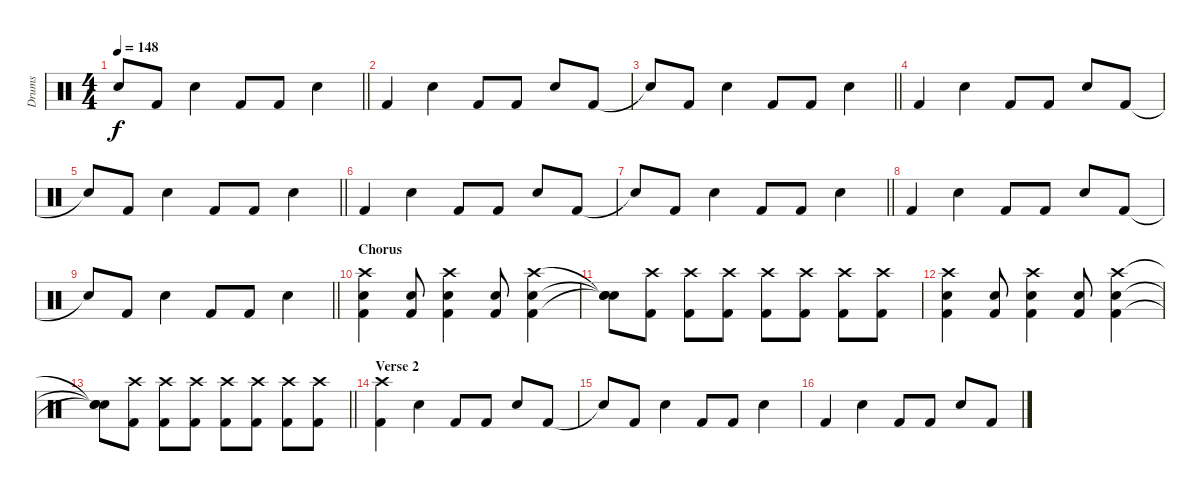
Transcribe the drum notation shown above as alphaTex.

\track ("Drums" "Drums") {instrument percussion}
\staff {score}
\articulation defaults
\ts (4 4)
\tempo 148
\clef neutral
\barLineRight lightlight
\ks c "Snare (hit)"{t}.8{dy f} "Kick (hit) 2".8 "Electric Snare (hit)".4 "Kick (hit) 2".8 "Kick (hit) 2".8 "Electric Snare (hit)".4
|
"Kick (hit) 2".4 "Electric Snare (hit)".4 "Kick (hit) 2".8 "Kick (hit) 2".8 "Electric Snare (hit)".8 "Kick (hit) 2".8 |
\barLineRight lightlight "Snare (hit)"{t}.8 "Kick (hit) 2".8 "Electric Snare (hit)".4 "Kick (hit) 2".8 "Kick (hit) 2".8 "Electric Snare (hit)".4
|
"Kick (hit) 2".4 "Electric Snare (hit)".4 "Kick (hit) 2".8 "Kick (hit) 2".8 "Electric Snare (hit)".8 "Kick (hit) 2".8 |
\barLineRight lightlight "Snare (hit)"{t}.8 "Kick (hit) 2".8 "Electric Snare (hit)".4 "Kick (hit) 2".8 "Kick (hit) 2".8 "Electric Snare (hit)".4
|
"Kick (hit) 2".4 "Electric Snare (hit)".4 "Kick (hit) 2".8 "Kick (hit) 2".8 "Electric Snare (hit)".8 "Kick (hit) 2".8 |
\barLineRight lightlight "Snare (hit)"{t}.8 "Kick (hit) 2".8 "Electric Snare (hit)".4 "Kick (hit) 2".8 "Kick (hit) 2".8 "Electric Snare (hit)".4
|
"Kick (hit) 2".4 "Electric Snare (hit)".4 "Kick (hit) 2".8 "Kick (hit) 2".8 "Electric Snare (hit)".8 "Kick (hit) 2".8 |
\barLineRight lightlight "Snare (hit)"{t}.8 "Kick (hit) 2".8 "Electric Snare (hit)".4 "Kick (hit) 2".8 "Kick (hit) 2".8 "Electric Snare (hit)".4
|
\section ("" "Chorus")
("Crash high (hit)" "Electric Snare (hit)" "Kick (hit) 2").4 ("Electric Snare (hit)" "Kick (hit) 2").8 ("Crash high (hit)" "Electric Snare (hit)" "Kick (hit) 2").4 ("Electric Snare (hit)" "Kick (hit) 2").8 ("Crash high (hit)" "Electric Snare (hit)" "Kick (hit) 2").4 |
("Snare (hit)"{t} "Snare (hit)"{t} "Snare (hit)"{t}).8 ("Crash high (hit)" "Kick (hit) 2").8 ("Crash high (hit)" "Kick (hit) 2").8 ("Crash high (hit)" "Kick (hit) 2").8 ("Crash high (hit)" "Kick (hit) 2").8 ("Crash high (hit)" "Kick (hit) 2").8 ("Crash high (hit)" "Kick (hit) 2").8 ("Crash high (hit)" "Kick (hit) 2").8 |
("Crash high (hit)" "Electric Snare (hit)" "Kick (hit) 2").4 ("Electric Snare (hit)" "Kick (hit) 2").8 ("Crash high (hit)" "Electric Snare (hit)" "Kick (hit) 2").4 ("Electric Snare (hit)" "Kick (hit) 2").8 ("Crash high (hit)" "Electric Snare (hit)" "Kick (hit) 2").4 |
\barLineRight lightlight
("Snare (hit)"{t} "Snare (hit)"{t} "Snare (hit)"{t}).8 ("Crash high (hit)" "Kick (hit) 2").8 ("Crash high (hit)" "Kick (hit) 2").8 ("Crash high (hit)" "Kick (hit) 2").8 ("Crash high (hit)" "Kick (hit) 2").8 ("Crash high (hit)" "Kick (hit) 2").8 ("Crash high (hit)" "Kick (hit) 2").8 ("Crash high (hit)" "Kick (hit) 2").8 |
\section ("" "Verse 2")
("Crash high (hit)" "Kick (hit) 2").4 "Electric Snare (hit)".4 "Kick (hit) 2".8 "Kick (hit) 2".8 "Electric Snare (hit)".8 "Kick (hit) 2".8 |
"Snare (hit)"{t}.8 "Kick (hit) 2".8 "Electric Snare (hit)".4 "Kick (hit) 2".8 "Kick (hit) 2".8 "Electric Snare (hit)".4 |
"Kick (hit) 2".4 "Electric Snare (hit)".4 "Kick (hit) 2".8 "Kick (hit) 2".8 "Electric Snare (hit)".8 "Kick (hit) 2".8
